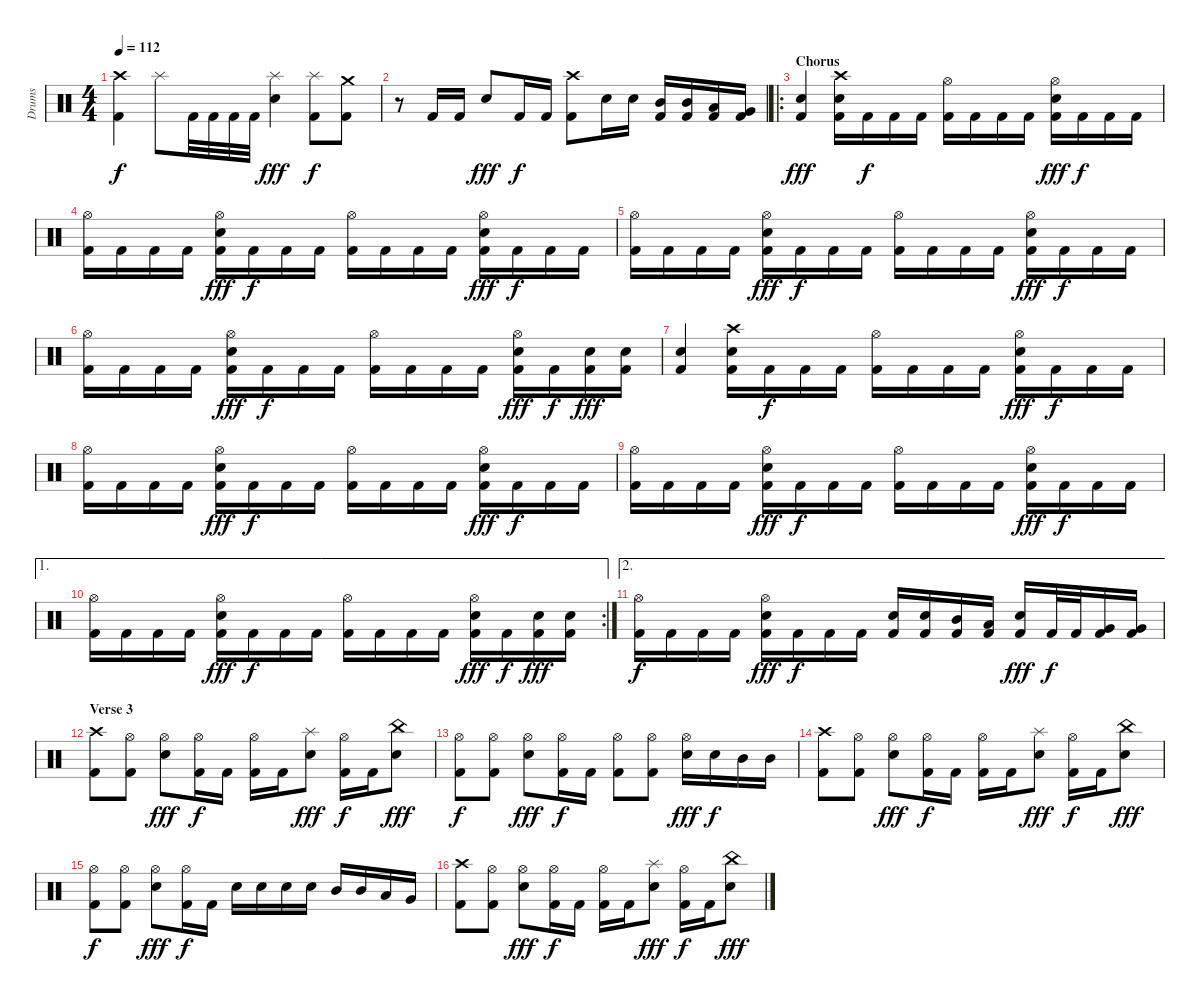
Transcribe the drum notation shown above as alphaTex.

\track ("Drums" "Drums") {instrument percussion}
\staff {score}
\articulation defaults
\ts (4 4)
\tempo 112
\clef neutral
\ks c
("Crash high (hit)" "Kick (hit) 2").4{dy f} "Splash (hit)".8 "Kick (hit) 2".32 "Kick (hit) 2".32 "Kick (hit) 2".32 "Kick (hit) 2".32 ("Splash (hit)" "Snare (hit) 2").4{dy fff} ("Splash (hit)" "Kick (hit) 2").8{dy f} ("Crash medium (hit)" "Kick (hit) 2").8 |
r.8 "Kick (hit) 2".16 "Kick (hit) 2".16 "Snare (hit) 2".8{dy fff} "Kick (hit) 2".16{dy f} "Kick (hit) 2".16 ("Crash high (hit)" "Kick (hit) 2").8 "Snare (hit) 2".16 "Snare (hit) 2".16 ("Mid Tom (hit)" "Kick (hit) 2").16 ("Mid Tom (hit)" "Kick (hit) 2").16 ("Low Tom (hit)" "Kick (hit) 2").16 ("Very Low Tom (hit)" "Kick (hit) 2").16 |
\ro
\section ("" "Chorus")
("Snare (hit) 2" "Kick (hit) 2").4{dy fff} ("Crash high (hit)" "Snare (hit) 2" "Kick (hit) 2").16 "Kick (hit) 2".16{dy f} "Kick (hit) 2".16 "Kick (hit) 2".16 ("Hi-Hat (open)" "Kick (hit) 2").16 "Kick (hit) 2".16 "Kick (hit) 2".16 "Kick (hit) 2".16 ("Hi-Hat (open)" "Snare (hit) 2" "Kick (hit) 2").16{dy fff} "Kick (hit) 2".16{dy f} "Kick (hit) 2".16 "Kick (hit) 2".16 |
("Hi-Hat (open)" "Kick (hit) 2").16 "Kick (hit) 2".16 "Kick (hit) 2".16 "Kick (hit) 2".16 ("Hi-Hat (open)" "Snare (hit) 2" "Kick (hit) 2").16{dy fff} "Kick (hit) 2".16{dy f} "Kick (hit) 2".16 "Kick (hit) 2".16 ("Hi-Hat (open)" "Kick (hit) 2").16 "Kick (hit) 2".16 "Kick (hit) 2".16 "Kick (hit) 2".16 ("Hi-Hat (open)" "Snare (hit) 2" "Kick (hit) 2").16{dy fff} "Kick (hit) 2".16{dy f} "Kick (hit) 2".16 "Kick (hit) 2".16 |
("Hi-Hat (open)" "Kick (hit) 2").16 "Kick (hit) 2".16 "Kick (hit) 2".16 "Kick (hit) 2".16 ("Hi-Hat (open)" "Snare (hit) 2" "Kick (hit) 2").16{dy fff} "Kick (hit) 2".16{dy f} "Kick (hit) 2".16 "Kick (hit) 2".16 ("Hi-Hat (open)" "Kick (hit) 2").16 "Kick (hit) 2".16 "Kick (hit) 2".16 "Kick (hit) 2".16 ("Hi-Hat (open)" "Snare (hit) 2" "Kick (hit) 2").16{dy fff} "Kick (hit) 2".16{dy f} "Kick (hit) 2".16 "Kick (hit) 2".16 |
("Hi-Hat (open)" "Kick (hit) 2").16 "Kick (hit) 2".16 "Kick (hit) 2".16 "Kick (hit) 2".16 ("Hi-Hat (open)" "Snare (hit) 2" "Kick (hit) 2").16{dy fff} "Kick (hit) 2".16{dy f} "Kick (hit) 2".16 "Kick (hit) 2".16 ("Hi-Hat (open)" "Kick (hit) 2").16 "Kick (hit) 2".16 "Kick (hit) 2".16 "Kick (hit) 2".16 ("Hi-Hat (open)" "Snare (hit) 2" "Kick (hit) 2").16{dy fff} "Kick (hit) 2".16{dy f} ("Snare (hit) 2" "Kick (hit) 2").16{dy fff} ("Snare (hit) 2" "Kick (hit) 2").16 |
("Snare (hit) 2" "Kick (hit) 2").4 ("Crash high (hit)" "Snare (hit) 2" "Kick (hit) 2").16 "Kick (hit) 2".16{dy f} "Kick (hit) 2".16 "Kick (hit) 2".16 ("Hi-Hat (open)" "Kick (hit) 2").16 "Kick (hit) 2".16 "Kick (hit) 2".16 "Kick (hit) 2".16 ("Hi-Hat (open)" "Snare (hit) 2" "Kick (hit) 2").16{dy fff} "Kick (hit) 2".16{dy f} "Kick (hit) 2".16 "Kick (hit) 2".16 |
("Hi-Hat (open)" "Kick (hit) 2").16 "Kick (hit) 2".16 "Kick (hit) 2".16 "Kick (hit) 2".16 ("Hi-Hat (open)" "Snare (hit) 2" "Kick (hit) 2").16{dy fff} "Kick (hit) 2".16{dy f} "Kick (hit) 2".16 "Kick (hit) 2".16 ("Hi-Hat (open)" "Kick (hit) 2").16 "Kick (hit) 2".16 "Kick (hit) 2".16 "Kick (hit) 2".16 ("Hi-Hat (open)" "Snare (hit) 2" "Kick (hit) 2").16{dy fff} "Kick (hit) 2".16{dy f} "Kick (hit) 2".16 "Kick (hit) 2".16 |
("Hi-Hat (open)" "Kick (hit) 2").16 "Kick (hit) 2".16 "Kick (hit) 2".16 "Kick (hit) 2".16 ("Hi-Hat (open)" "Snare (hit) 2" "Kick (hit) 2").16{dy fff} "Kick (hit) 2".16{dy f} "Kick (hit) 2".16 "Kick (hit) 2".16 ("Hi-Hat (open)" "Kick (hit) 2").16 "Kick (hit) 2".16 "Kick (hit) 2".16 "Kick (hit) 2".16 ("Hi-Hat (open)" "Snare (hit) 2" "Kick (hit) 2").16{dy fff} "Kick (hit) 2".16{dy f} "Kick (hit) 2".16 "Kick (hit) 2".16 |
\ae 1
\rc 2
("Hi-Hat (open)" "Kick (hit) 2").16 "Kick (hit) 2".16 "Kick (hit) 2".16 "Kick (hit) 2".16 ("Hi-Hat (open)" "Snare (hit) 2" "Kick (hit) 2").16{dy fff} "Kick (hit) 2".16{dy f} "Kick (hit) 2".16 "Kick (hit) 2".16 ("Hi-Hat (open)" "Kick (hit) 2").16 "Kick (hit) 2".16 "Kick (hit) 2".16 "Kick (hit) 2".16 ("Hi-Hat (open)" "Snare (hit) 2" "Kick (hit) 2").16{dy fff} "Kick (hit) 2".16{dy f} ("Snare (hit) 2" "Kick (hit) 2").16{dy fff} ("Snare (hit) 2" "Kick (hit) 2").16 |
\ae 2
("Hi-Hat (open)" "Kick (hit) 2").16{dy f} "Kick (hit) 2".16 "Kick (hit) 2".16 "Kick (hit) 2".16 ("Hi-Hat (open)" "Snare (hit) 2" "Kick (hit) 2").16{dy fff} "Kick (hit) 2".16{dy f} "Kick (hit) 2".16 "Kick (hit) 2".16 ("Snare (hit) 2" "Kick (hit) 2").16 ("Snare (hit) 2" "Kick (hit) 2").16 ("Mid Tom (hit)" "Kick (hit) 2").16 ("Low Tom (hit)" "Kick (hit) 2").16 ("Snare (hit) 2" "Kick (hit) 2").16{dy fff} "Kick (hit) 2".32{dy f} "Kick (hit) 2".32 ("Very Low Tom (hit)" "Kick (hit) 2").16 ("Very Low Tom (hit)" "Kick (hit) 2").16 |
\section ("" "Verse 3")
("Crash high (hit)" "Kick (hit) 2").8 ("Hi-Hat (open)" "Kick (hit) 2").8 ("Hi-Hat (open)" "Snare (hit) 2").8{dy fff} ("Hi-Hat (open)" "Kick (hit) 2").16{dy f} "Kick (hit) 2".16 ("Hi-Hat (open)" "Kick (hit) 2").16 "Kick (hit) 2".16 ("Splash (hit)" "Snare (hit) 2").8{dy fff} ("Hi-Hat (open)" "Kick (hit) 2").16{dy f} "Kick (hit) 2".16 ("China (hit)" "Snare (hit) 2").8{dy fff} |
("Hi-Hat (open)" "Kick (hit) 2").8{dy f} ("Hi-Hat (open)" "Kick (hit) 2").8 ("Hi-Hat (open)" "Snare (hit) 2").8{dy fff} ("Hi-Hat (open)" "Kick (hit) 2").16{dy f} "Kick (hit) 2".16 ("Hi-Hat (open)" "Kick (hit) 2").8 ("Hi-Hat (open)" "Kick (hit) 2").8 ("Hi-Hat (open)" "Snare (hit) 2").16{dy fff} "Snare (hit) 2".16{dy f} "Mid Tom (hit)".16 "Mid Tom (hit)".16 |
("Crash high (hit)" "Kick (hit) 2").8 ("Hi-Hat (open)" "Kick (hit) 2").8 ("Hi-Hat (open)" "Snare (hit) 2").8{dy fff} ("Hi-Hat (open)" "Kick (hit) 2").16{dy f} "Kick (hit) 2".16 ("Hi-Hat (open)" "Kick (hit) 2").16 "Kick (hit) 2".16 ("Splash (hit)" "Snare (hit) 2").8{dy fff} ("Hi-Hat (open)" "Kick (hit) 2").16{dy f} "Kick (hit) 2".16 ("China (hit)" "Snare (hit) 2").8{dy fff} |
("Hi-Hat (open)" "Kick (hit) 2").8{dy f} ("Hi-Hat (open)" "Kick (hit) 2").8 ("Hi-Hat (open)" "Snare (hit) 2").8{dy fff} ("Hi-Hat (open)" "Kick (hit) 2").16{dy f} "Kick (hit) 2".16 "Snare (hit) 2".16 "Snare (hit) 2".16 "Snare (hit) 2".16 "Snare (hit) 2".16 "Mid Tom (hit)".16 "Mid Tom (hit)".16 "Low Tom (hit)".16 "Very Low Tom (hit)".16 |
("Crash high (hit)" "Kick (hit) 2").8 ("Hi-Hat (open)" "Kick (hit) 2").8 ("Hi-Hat (open)" "Snare (hit) 2").8{dy fff} ("Hi-Hat (open)" "Kick (hit) 2").16{dy f} "Kick (hit) 2".16 ("Hi-Hat (open)" "Kick (hit) 2").16 "Kick (hit) 2".16 ("Splash (hit)" "Snare (hit) 2").8{dy fff} ("Hi-Hat (open)" "Kick (hit) 2").16{dy f} "Kick (hit) 2".16 ("China (hit)" "Snare (hit) 2").8{dy fff}
